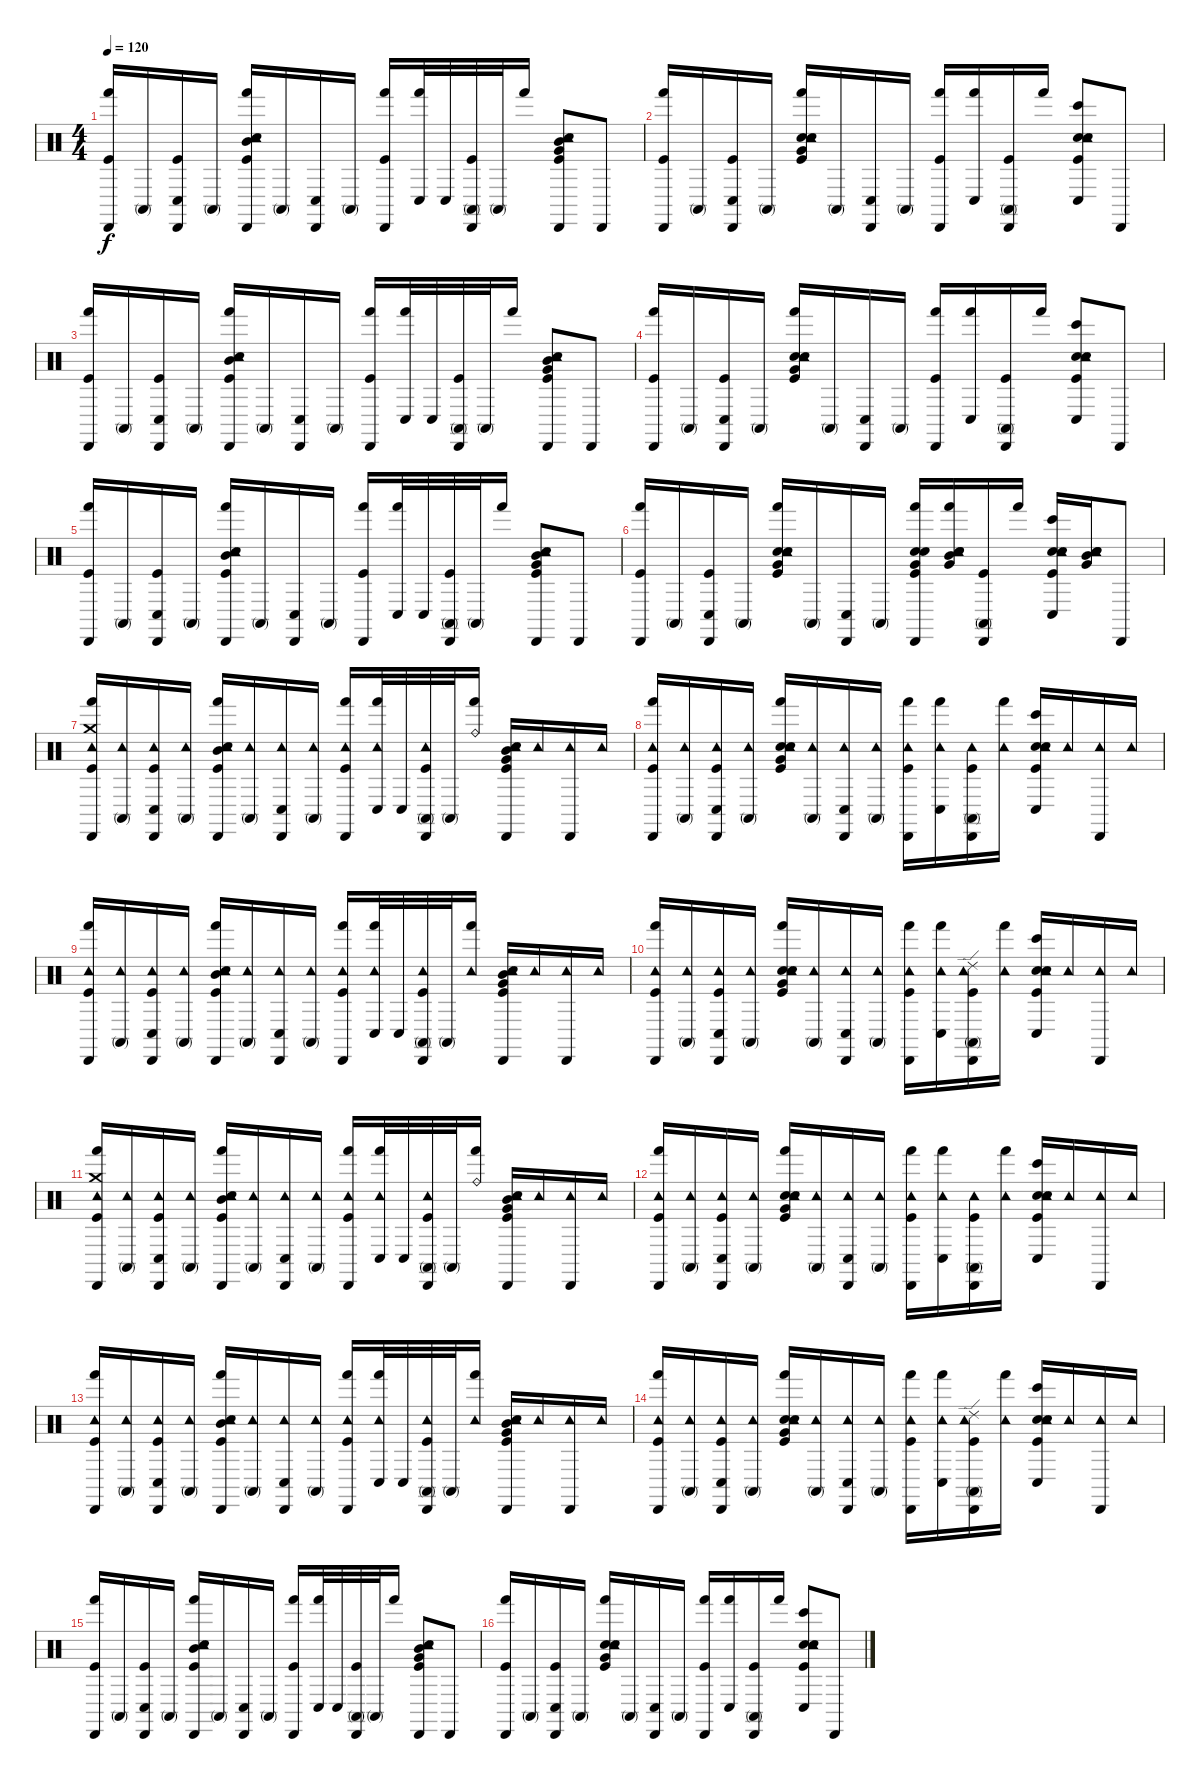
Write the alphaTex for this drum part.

\track "" {instrument percussion}
\staff {score}
\articulation defaults
\ts (4 4)
\tempo 120
\clef neutral
\ks c
("Hand (hit)" "Kick (hit)" "Cabasa (hit)").16{dy f} "Conga high (mute)".16 ("Conga low (hit)" "Kick (hit)" "Cabasa (hit)").16 "Conga high (mute)".16 ("Hand (hit)" "Kick (hit)" "Tambourine (hit)" "Snare (hit) 2" "Cabasa (hit)" "Mid Tom (hit)").16 "Conga high (mute)".16 ("Conga low (hit)" "Cabasa (hit)").16 "Conga high (mute)".16 ("Hand (hit)" "Kick (hit)" "Cabasa (hit)").16 ("Conga low (hit)" "Hand (hit)").32 "Conga low (hit)".32 ("Conga high (mute)" "Kick (hit)" "Cabasa (hit)").32 "Conga high (mute)".32 "Hand (hit)".16 ("Kick (hit)" "Snare (hit) 2" "Tambourine (hit)" "Cabasa (hit)" "Mid Tom (hit)" "Very Low Tom (hit)").8 "Cabasa (hit)".8 |
("Hand (hit)" "Kick (hit)" "Cabasa (hit)").16 "Conga high (mute)".16 ("Conga low (hit)" "Kick (hit)" "Cabasa (hit)").16 "Conga high (mute)".16 ("Hand (hit)" "Kick (hit)" "Snare (hit) 2" "Tambourine (hit)" "Electric Snare (hit)" "Very Low Tom (hit)").16 "Conga high (mute)".16 ("Conga low (hit)" "Cabasa (hit)").16 "Conga high (mute)".16 ("Hand (hit)" "Kick (hit)" "Cabasa (hit)").16 ("Conga low (hit)" "Hand (hit)").16 ("Conga high (mute)" "Kick (hit)" "Cabasa (hit)").16 "Hand (hit)".16 ("Kick (hit)" "Snare (hit) 2" "Tambourine (hit)" "Bongo High (hit)" "Conga low (hit)" "Electric Snare (hit)").8 "Cabasa (hit)".8 |
("Hand (hit)" "Kick (hit)" "Cabasa (hit)").16 "Conga high (mute)".16 ("Conga low (hit)" "Kick (hit)" "Cabasa (hit)").16 "Conga high (mute)".16 ("Hand (hit)" "Kick (hit)" "Tambourine (hit)" "Snare (hit) 2" "Cabasa (hit)" "Mid Tom (hit)").16 "Conga high (mute)".16 ("Conga low (hit)" "Cabasa (hit)").16 "Conga high (mute)".16 ("Hand (hit)" "Kick (hit)" "Cabasa (hit)").16 ("Conga low (hit)" "Hand (hit)").32 "Conga low (hit)".32 ("Conga high (mute)" "Kick (hit)" "Cabasa (hit)").32 "Conga high (mute)".32 "Hand (hit)".16 ("Kick (hit)" "Snare (hit) 2" "Tambourine (hit)" "Cabasa (hit)" "Mid Tom (hit)" "Very Low Tom (hit)").8 "Cabasa (hit)".8 |
("Hand (hit)" "Kick (hit)" "Cabasa (hit)").16 "Conga high (mute)".16 ("Conga low (hit)" "Kick (hit)" "Cabasa (hit)").16 "Conga high (mute)".16 ("Hand (hit)" "Kick (hit)" "Snare (hit) 2" "Tambourine (hit)" "Electric Snare (hit)" "Very Low Tom (hit)").16 "Conga high (mute)".16 ("Conga low (hit)" "Cabasa (hit)").16 "Conga high (mute)".16 ("Hand (hit)" "Kick (hit)" "Cabasa (hit)").16 ("Conga low (hit)" "Hand (hit)").16 ("Conga high (mute)" "Kick (hit)" "Cabasa (hit)").16 "Hand (hit)".16 ("Kick (hit)" "Snare (hit) 2" "Tambourine (hit)" "Bongo High (hit)" "Conga low (hit)" "Electric Snare (hit)").8 "Cabasa (hit)".8 |
("Hand (hit)" "Kick (hit)" "Cabasa (hit)").16 "Conga high (mute)".16 ("Conga low (hit)" "Kick (hit)" "Cabasa (hit)").16 "Conga high (mute)".16 ("Hand (hit)" "Kick (hit)" "Tambourine (hit)" "Snare (hit) 2" "Cabasa (hit)" "Mid Tom (hit)").16 "Conga high (mute)".16 ("Conga low (hit)" "Cabasa (hit)").16 "Conga high (mute)".16 ("Hand (hit)" "Kick (hit)" "Cabasa (hit)").16 ("Conga low (hit)" "Hand (hit)").32 "Conga low (hit)".32 ("Conga high (mute)" "Kick (hit)" "Cabasa (hit)").32 "Conga high (mute)".32 "Hand (hit)".16 ("Kick (hit)" "Snare (hit) 2" "Tambourine (hit)" "Cabasa (hit)" "Mid Tom (hit)" "Very Low Tom (hit)").8 "Cabasa (hit)".8 |
("Hand (hit)" "Kick (hit)" "Cabasa (hit)").16 "Conga high (mute)".16 ("Conga low (hit)" "Kick (hit)" "Cabasa (hit)").16 "Conga high (mute)".16 ("Hand (hit)" "Kick (hit)" "Snare (hit) 2" "Tambourine (hit)" "Electric Snare (hit)" "Very Low Tom (hit)").16 "Conga high (mute)".16 ("Conga low (hit)" "Cabasa (hit)").16 "Conga high (mute)".16 ("Hand (hit)" "Kick (hit)" "Cabasa (hit)" "Electric Snare (hit)" "Snare (hit) 2" "Very Low Tom (hit)").16 ("Hand (hit)" "Snare (hit) 2" "Electric Snare (hit)" "Very Low Tom (hit)" "Mid Tom (hit)" "Tambourine (hit)").16 ("Conga high (mute)" "Kick (hit)" "Cabasa (hit)").16 "Hand (hit)".16 ("Kick (hit)" "Snare (hit) 2" "Tambourine (hit)" "Bongo High (hit)" "Conga low (hit)" "Electric Snare (hit)").16 ("Snare (hit) 2" "Electric Snare (hit)" "Very Low Tom (hit)" "Mid Tom (hit)" "Tambourine (hit)").16 "Cabasa (hit)".8 |
("Hand (hit)" "Kick (hit)" "Cabasa (hit)" "Crash medium (hit)" "Tambourine (hit)").16 ("Conga high (mute)" "Tambourine (hit)").16 ("Conga low (hit)" "Kick (hit)" "Cabasa (hit)" "Tambourine (hit)").16 ("Conga high (mute)" "Tambourine (hit)").16 ("Hand (hit)" "Kick (hit)" "Tambourine (hit)" "Snare (hit) 2" "Cabasa (hit)" "Mid Tom (hit)").16 ("Conga high (mute)" "Tambourine (hit)").16 ("Conga low (hit)" "Cabasa (hit)" "Tambourine (hit)").16 ("Conga high (mute)" "Tambourine (hit)").16 ("Hand (hit)" "Kick (hit)" "Cabasa (hit)" "Tambourine (hit)").16 ("Conga low (hit)" "Hand (hit)" "Tambourine (hit)").32 "Conga low (hit)".32 ("Conga high (mute)" "Kick (hit)" "Cabasa (hit)" "Tambourine (hit)").32 "Conga high (mute)".32 ("Hand (hit)" "Ride (bell)").16 ("Kick (hit)" "Snare (hit) 2" "Tambourine (hit)" "Cabasa (hit)" "Mid Tom (hit)" "Very Low Tom (hit)").16 "Tambourine (hit)".16 ("Cabasa (hit)" "Tambourine (hit)").16 "Tambourine (hit)".16 |
("Hand (hit)" "Kick (hit)" "Cabasa (hit)" "Tambourine (hit)").16 ("Conga high (mute)" "Tambourine (hit)").16 ("Conga low (hit)" "Kick (hit)" "Cabasa (hit)" "Tambourine (hit)").16 ("Conga high (mute)" "Tambourine (hit)").16 ("Hand (hit)" "Kick (hit)" "Snare (hit) 2" "Tambourine (hit)" "Electric Snare (hit)" "Very Low Tom (hit)").16 ("Conga high (mute)" "Tambourine (hit)").16 ("Conga low (hit)" "Cabasa (hit)" "Tambourine (hit)").16 ("Conga high (mute)" "Tambourine (hit)").16 ("Hand (hit)" "Kick (hit)" "Cabasa (hit)" "Tambourine (hit)").16 ("Conga low (hit)" "Hand (hit)" "Tambourine (hit)").16 ("Conga high (mute)" "Kick (hit)" "Cabasa (hit)" "Tambourine (hit)").16 ("Hand (hit)" "Tambourine (hit)").16 ("Kick (hit)" "Snare (hit) 2" "Tambourine (hit)" "Bongo High (hit)" "Conga low (hit)" "Electric Snare (hit)").16 "Tambourine (hit)".16 ("Cabasa (hit)" "Tambourine (hit)").16 "Tambourine (hit)".16 |
("Hand (hit)" "Kick (hit)" "Cabasa (hit)" "Tambourine (hit)").16 ("Conga high (mute)" "Tambourine (hit)").16 ("Conga low (hit)" "Kick (hit)" "Cabasa (hit)" "Tambourine (hit)").16 ("Conga high (mute)" "Tambourine (hit)").16 ("Hand (hit)" "Kick (hit)" "Tambourine (hit)" "Snare (hit) 2" "Cabasa (hit)" "Mid Tom (hit)").16 ("Conga high (mute)" "Tambourine (hit)").16 ("Conga low (hit)" "Cabasa (hit)" "Tambourine (hit)").16 ("Conga high (mute)" "Tambourine (hit)").16 ("Hand (hit)" "Kick (hit)" "Cabasa (hit)" "Tambourine (hit)").16 ("Conga low (hit)" "Hand (hit)" "Tambourine (hit)").32 "Conga low (hit)".32 ("Conga high (mute)" "Kick (hit)" "Cabasa (hit)" "Tambourine (hit)").32 "Conga high (mute)".32 ("Hand (hit)" "Tambourine (hit)").16 ("Kick (hit)" "Snare (hit) 2" "Tambourine (hit)" "Cabasa (hit)" "Mid Tom (hit)" "Very Low Tom (hit)").16 "Tambourine (hit)".16 ("Cabasa (hit)" "Tambourine (hit)").16 "Tambourine (hit)".16 |
("Hand (hit)" "Kick (hit)" "Cabasa (hit)" "Tambourine (hit)").16 ("Conga high (mute)" "Tambourine (hit)").16 ("Conga low (hit)" "Kick (hit)" "Cabasa (hit)" "Tambourine (hit)").16 ("Conga high (mute)" "Tambourine (hit)").16 ("Hand (hit)" "Kick (hit)" "Snare (hit) 2" "Tambourine (hit)" "Electric Snare (hit)" "Very Low Tom (hit)").16 ("Conga high (mute)" "Tambourine (hit)").16 ("Conga low (hit)" "Cabasa (hit)" "Tambourine (hit)").16 ("Conga high (mute)" "Tambourine (hit)").16 ("Hand (hit)" "Kick (hit)" "Cabasa (hit)" "Tambourine (hit)").16 ("Conga low (hit)" "Hand (hit)" "Tambourine (hit)").16 ("Conga high (mute)" "Kick (hit)" "Cabasa (hit)" "Ride (edge) 2" "Tambourine (hit)").16 ("Hand (hit)" "Tambourine (hit)").16 ("Kick (hit)" "Snare (hit) 2" "Tambourine (hit)" "Bongo High (hit)" "Conga low (hit)" "Electric Snare (hit)").16 "Tambourine (hit)".16 ("Cabasa (hit)" "Tambourine (hit)").16 "Tambourine (hit)".16 |
("Hand (hit)" "Kick (hit)" "Cabasa (hit)" "Crash medium (hit)" "Tambourine (hit)").16 ("Conga high (mute)" "Tambourine (hit)").16 ("Conga low (hit)" "Kick (hit)" "Cabasa (hit)" "Tambourine (hit)").16 ("Conga high (mute)" "Tambourine (hit)").16 ("Hand (hit)" "Kick (hit)" "Tambourine (hit)" "Snare (hit) 2" "Cabasa (hit)" "Mid Tom (hit)").16 ("Conga high (mute)" "Tambourine (hit)").16 ("Conga low (hit)" "Cabasa (hit)" "Tambourine (hit)").16 ("Conga high (mute)" "Tambourine (hit)").16 ("Hand (hit)" "Kick (hit)" "Cabasa (hit)" "Tambourine (hit)").16 ("Conga low (hit)" "Hand (hit)" "Tambourine (hit)").32 "Conga low (hit)".32 ("Conga high (mute)" "Kick (hit)" "Cabasa (hit)" "Tambourine (hit)").32 "Conga high (mute)".32 ("Hand (hit)" "Ride (bell)").16 ("Kick (hit)" "Snare (hit) 2" "Tambourine (hit)" "Cabasa (hit)" "Mid Tom (hit)" "Very Low Tom (hit)").16 "Tambourine (hit)".16 ("Cabasa (hit)" "Tambourine (hit)").16 "Tambourine (hit)".16 |
("Hand (hit)" "Kick (hit)" "Cabasa (hit)" "Tambourine (hit)").16 ("Conga high (mute)" "Tambourine (hit)").16 ("Conga low (hit)" "Kick (hit)" "Cabasa (hit)" "Tambourine (hit)").16 ("Conga high (mute)" "Tambourine (hit)").16 ("Hand (hit)" "Kick (hit)" "Snare (hit) 2" "Tambourine (hit)" "Electric Snare (hit)" "Very Low Tom (hit)").16 ("Conga high (mute)" "Tambourine (hit)").16 ("Conga low (hit)" "Cabasa (hit)" "Tambourine (hit)").16 ("Conga high (mute)" "Tambourine (hit)").16 ("Hand (hit)" "Kick (hit)" "Cabasa (hit)" "Tambourine (hit)").16 ("Conga low (hit)" "Hand (hit)" "Tambourine (hit)").16 ("Conga high (mute)" "Kick (hit)" "Cabasa (hit)" "Tambourine (hit)").16 ("Hand (hit)" "Tambourine (hit)").16 ("Kick (hit)" "Snare (hit) 2" "Tambourine (hit)" "Bongo High (hit)" "Conga low (hit)" "Electric Snare (hit)").16 "Tambourine (hit)".16 ("Cabasa (hit)" "Tambourine (hit)").16 "Tambourine (hit)".16 |
("Hand (hit)" "Kick (hit)" "Cabasa (hit)" "Tambourine (hit)").16 ("Conga high (mute)" "Tambourine (hit)").16 ("Conga low (hit)" "Kick (hit)" "Cabasa (hit)" "Tambourine (hit)").16 ("Conga high (mute)" "Tambourine (hit)").16 ("Hand (hit)" "Kick (hit)" "Tambourine (hit)" "Snare (hit) 2" "Cabasa (hit)" "Mid Tom (hit)").16 ("Conga high (mute)" "Tambourine (hit)").16 ("Conga low (hit)" "Cabasa (hit)" "Tambourine (hit)").16 ("Conga high (mute)" "Tambourine (hit)").16 ("Hand (hit)" "Kick (hit)" "Cabasa (hit)" "Tambourine (hit)").16 ("Conga low (hit)" "Hand (hit)" "Tambourine (hit)").32 "Conga low (hit)".32 ("Conga high (mute)" "Kick (hit)" "Cabasa (hit)" "Tambourine (hit)").32 "Conga high (mute)".32 ("Hand (hit)" "Tambourine (hit)").16 ("Kick (hit)" "Snare (hit) 2" "Tambourine (hit)" "Cabasa (hit)" "Mid Tom (hit)" "Very Low Tom (hit)").16 "Tambourine (hit)".16 ("Cabasa (hit)" "Tambourine (hit)").16 "Tambourine (hit)".16 |
("Hand (hit)" "Kick (hit)" "Cabasa (hit)" "Tambourine (hit)").16 ("Conga high (mute)" "Tambourine (hit)").16 ("Conga low (hit)" "Kick (hit)" "Cabasa (hit)" "Tambourine (hit)").16 ("Conga high (mute)" "Tambourine (hit)").16 ("Hand (hit)" "Kick (hit)" "Snare (hit) 2" "Tambourine (hit)" "Electric Snare (hit)" "Very Low Tom (hit)").16 ("Conga high (mute)" "Tambourine (hit)").16 ("Conga low (hit)" "Cabasa (hit)" "Tambourine (hit)").16 ("Conga high (mute)" "Tambourine (hit)").16 ("Hand (hit)" "Kick (hit)" "Cabasa (hit)" "Tambourine (hit)").16 ("Conga low (hit)" "Hand (hit)" "Tambourine (hit)").16 ("Conga high (mute)" "Kick (hit)" "Cabasa (hit)" "Ride (edge) 2" "Tambourine (hit)").16 ("Hand (hit)" "Tambourine (hit)").16 ("Kick (hit)" "Snare (hit) 2" "Tambourine (hit)" "Bongo High (hit)" "Conga low (hit)" "Electric Snare (hit)").16 "Tambourine (hit)".16 ("Cabasa (hit)" "Tambourine (hit)").16 "Tambourine (hit)".16 |
("Hand (hit)" "Kick (hit)" "Cabasa (hit)").16 "Conga high (mute)".16 ("Conga low (hit)" "Kick (hit)" "Cabasa (hit)").16 "Conga high (mute)".16 ("Hand (hit)" "Kick (hit)" "Tambourine (hit)" "Snare (hit) 2" "Cabasa (hit)" "Mid Tom (hit)").16 "Conga high (mute)".16 ("Conga low (hit)" "Cabasa (hit)").16 "Conga high (mute)".16 ("Hand (hit)" "Kick (hit)" "Cabasa (hit)").16 ("Conga low (hit)" "Hand (hit)").32 "Conga low (hit)".32 ("Conga high (mute)" "Kick (hit)" "Cabasa (hit)").32 "Conga high (mute)".32 "Hand (hit)".16 ("Kick (hit)" "Snare (hit) 2" "Tambourine (hit)" "Cabasa (hit)" "Mid Tom (hit)" "Very Low Tom (hit)").8 "Cabasa (hit)".8 |
("Hand (hit)" "Kick (hit)" "Cabasa (hit)").16 "Conga high (mute)".16 ("Conga low (hit)" "Kick (hit)" "Cabasa (hit)").16 "Conga high (mute)".16 ("Hand (hit)" "Kick (hit)" "Snare (hit) 2" "Tambourine (hit)" "Electric Snare (hit)" "Very Low Tom (hit)").16 "Conga high (mute)".16 ("Conga low (hit)" "Cabasa (hit)").16 "Conga high (mute)".16 ("Hand (hit)" "Kick (hit)" "Cabasa (hit)").16 ("Conga low (hit)" "Hand (hit)").16 ("Conga high (mute)" "Kick (hit)" "Cabasa (hit)").16 "Hand (hit)".16 ("Kick (hit)" "Snare (hit) 2" "Tambourine (hit)" "Bongo High (hit)" "Conga low (hit)" "Electric Snare (hit)").8 "Cabasa (hit)".8
